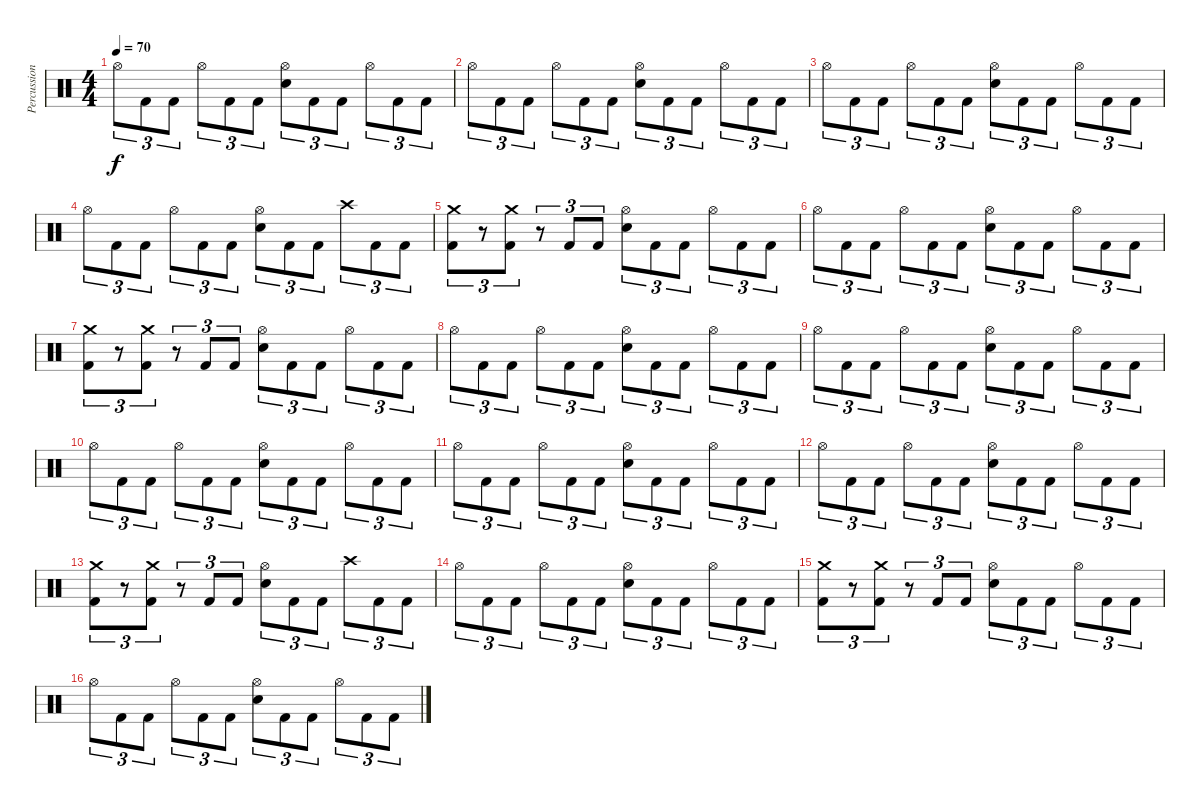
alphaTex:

\track ("Percussion" "Percussion") {instrument percussion}
\staff {score}
\articulation defaults
\ts (4 4)
\tempo 70
\clef neutral
\ks c "Hi-Hat (open)".8{tu (3 2) dy f} "Kick (hit) 2".8{tu (3 2)} "Kick (hit) 2".8{tu (3 2)} "Hi-Hat (open)".8{tu (3 2)} "Kick (hit) 2".8{tu (3 2)} "Kick (hit) 2".8{tu (3 2)}
("Hi-Hat (open)" "Electric Snare (hit)").8{tu (3 2)} "Kick (hit) 2".8{tu (3 2)} "Kick (hit) 2".8{tu (3 2)} "Hi-Hat (open)".8{tu (3 2)} "Kick (hit) 2".8{tu (3 2)} "Kick (hit) 2".8{tu (3 2)} |
"Hi-Hat (open)".8{tu (3 2)} "Kick (hit) 2".8{tu (3 2)} "Kick (hit) 2".8{tu (3 2)} "Hi-Hat (open)".8{tu (3 2)} "Kick (hit) 2".8{tu (3 2)} "Kick (hit) 2".8{tu (3 2)} ("Hi-Hat (open)" "Electric Snare (hit)").8{tu (3 2)} "Kick (hit) 2".8{tu (3 2)} "Kick (hit) 2".8{tu (3 2)} "Hi-Hat (open)".8{tu (3 2)} "Kick (hit) 2".8{tu (3 2)} "Kick (hit) 2".8{tu (3 2)} |
"Hi-Hat (open)".8{tu (3 2)} "Kick (hit) 2".8{tu (3 2)} "Kick (hit) 2".8{tu (3 2)} "Hi-Hat (open)".8{tu (3 2)} "Kick (hit) 2".8{tu (3 2)} "Kick (hit) 2".8{tu (3 2)} ("Hi-Hat (open)" "Electric Snare (hit)").8{tu (3 2)} "Kick (hit) 2".8{tu (3 2)} "Kick (hit) 2".8{tu (3 2)} "Hi-Hat (open)".8{tu (3 2)} "Kick (hit) 2".8{tu (3 2)} "Kick (hit) 2".8{tu (3 2)} |
"Hi-Hat (open)".8{tu (3 2)} "Kick (hit) 2".8{tu (3 2)} "Kick (hit) 2".8{tu (3 2)} "Hi-Hat (open)".8{tu (3 2)} "Kick (hit) 2".8{tu (3 2)} "Kick (hit) 2".8{tu (3 2)} ("Hi-Hat (open)" "Electric Snare (hit)").8{tu (3 2)} "Kick (hit) 2".8{tu (3 2)} "Kick (hit) 2".8{tu (3 2)} "Crash high (hit)".8{tu (3 2)} "Kick (hit) 2".8{tu (3 2)} "Kick (hit) 2".8{tu (3 2)} |
("Crash medium (hit)" "Kick (hit) 2").8{tu (3 2)} r.8{tu (3 2)} ("Crash medium (hit)" "Kick (hit) 2").8{tu (3 2)} r.8{tu (3 2)} "Kick (hit) 2".8{tu (3 2)} "Kick (hit) 2".8{tu (3 2)} ("Hi-Hat (open)" "Electric Snare (hit)").8{tu (3 2)} "Kick (hit) 2".8{tu (3 2)} "Kick (hit) 2".8{tu (3 2)} "Hi-Hat (open)".8{tu (3 2)} "Kick (hit) 2".8{tu (3 2)} "Kick (hit) 2".8{tu (3 2)} |
"Hi-Hat (open)".8{tu (3 2)} "Kick (hit) 2".8{tu (3 2)} "Kick (hit) 2".8{tu (3 2)} "Hi-Hat (open)".8{tu (3 2)} "Kick (hit) 2".8{tu (3 2)} "Kick (hit) 2".8{tu (3 2)} ("Hi-Hat (open)" "Electric Snare (hit)").8{tu (3 2)} "Kick (hit) 2".8{tu (3 2)} "Kick (hit) 2".8{tu (3 2)} "Hi-Hat (open)".8{tu (3 2)} "Kick (hit) 2".8{tu (3 2)} "Kick (hit) 2".8{tu (3 2)} |
("Crash medium (hit)" "Kick (hit) 2").8{tu (3 2)} r.8{tu (3 2)} ("Crash medium (hit)" "Kick (hit) 2").8{tu (3 2)} r.8{tu (3 2)} "Kick (hit) 2".8{tu (3 2)} "Kick (hit) 2".8{tu (3 2)} ("Hi-Hat (open)" "Electric Snare (hit)").8{tu (3 2)} "Kick (hit) 2".8{tu (3 2)} "Kick (hit) 2".8{tu (3 2)} "Hi-Hat (open)".8{tu (3 2)} "Kick (hit) 2".8{tu (3 2)} "Kick (hit) 2".8{tu (3 2)} |
"Hi-Hat (open)".8{tu (3 2)} "Kick (hit) 2".8{tu (3 2)} "Kick (hit) 2".8{tu (3 2)} "Hi-Hat (open)".8{tu (3 2)} "Kick (hit) 2".8{tu (3 2)} "Kick (hit) 2".8{tu (3 2)} ("Hi-Hat (open)" "Electric Snare (hit)").8{tu (3 2)} "Kick (hit) 2".8{tu (3 2)} "Kick (hit) 2".8{tu (3 2)} "Hi-Hat (open)".8{tu (3 2)} "Kick (hit) 2".8{tu (3 2)} "Kick (hit) 2".8{tu (3 2)} |
"Hi-Hat (open)".8{tu (3 2)} "Kick (hit) 2".8{tu (3 2)} "Kick (hit) 2".8{tu (3 2)} "Hi-Hat (open)".8{tu (3 2)} "Kick (hit) 2".8{tu (3 2)} "Kick (hit) 2".8{tu (3 2)} ("Hi-Hat (open)" "Electric Snare (hit)").8{tu (3 2)} "Kick (hit) 2".8{tu (3 2)} "Kick (hit) 2".8{tu (3 2)} "Hi-Hat (open)".8{tu (3 2)} "Kick (hit) 2".8{tu (3 2)} "Kick (hit) 2".8{tu (3 2)} |
"Hi-Hat (open)".8{tu (3 2)} "Kick (hit) 2".8{tu (3 2)} "Kick (hit) 2".8{tu (3 2)} "Hi-Hat (open)".8{tu (3 2)} "Kick (hit) 2".8{tu (3 2)} "Kick (hit) 2".8{tu (3 2)} ("Hi-Hat (open)" "Electric Snare (hit)").8{tu (3 2)} "Kick (hit) 2".8{tu (3 2)} "Kick (hit) 2".8{tu (3 2)} "Hi-Hat (open)".8{tu (3 2)} "Kick (hit) 2".8{tu (3 2)} "Kick (hit) 2".8{tu (3 2)} |
"Hi-Hat (open)".8{tu (3 2)} "Kick (hit) 2".8{tu (3 2)} "Kick (hit) 2".8{tu (3 2)} "Hi-Hat (open)".8{tu (3 2)} "Kick (hit) 2".8{tu (3 2)} "Kick (hit) 2".8{tu (3 2)} ("Hi-Hat (open)" "Electric Snare (hit)").8{tu (3 2)} "Kick (hit) 2".8{tu (3 2)} "Kick (hit) 2".8{tu (3 2)} "Hi-Hat (open)".8{tu (3 2)} "Kick (hit) 2".8{tu (3 2)} "Kick (hit) 2".8{tu (3 2)} |
"Hi-Hat (open)".8{tu (3 2)} "Kick (hit) 2".8{tu (3 2)} "Kick (hit) 2".8{tu (3 2)} "Hi-Hat (open)".8{tu (3 2)} "Kick (hit) 2".8{tu (3 2)} "Kick (hit) 2".8{tu (3 2)} ("Hi-Hat (open)" "Electric Snare (hit)").8{tu (3 2)} "Kick (hit) 2".8{tu (3 2)} "Kick (hit) 2".8{tu (3 2)} "Hi-Hat (open)".8{tu (3 2)} "Kick (hit) 2".8{tu (3 2)} "Kick (hit) 2".8{tu (3 2)} |
("Crash medium (hit)" "Kick (hit) 2").8{tu (3 2)} r.8{tu (3 2)} ("Crash medium (hit)" "Kick (hit) 2").8{tu (3 2)} r.8{tu (3 2)} "Kick (hit) 2".8{tu (3 2)} "Kick (hit) 2".8{tu (3 2)} ("Hi-Hat (open)" "Electric Snare (hit)").8{tu (3 2)} "Kick (hit) 2".8{tu (3 2)} "Kick (hit) 2".8{tu (3 2)} "Crash high (hit)".8{tu (3 2)} "Kick (hit) 2".8{tu (3 2)} "Kick (hit) 2".8{tu (3 2)} |
"Hi-Hat (open)".8{tu (3 2)} "Kick (hit) 2".8{tu (3 2)} "Kick (hit) 2".8{tu (3 2)} "Hi-Hat (open)".8{tu (3 2)} "Kick (hit) 2".8{tu (3 2)} "Kick (hit) 2".8{tu (3 2)} ("Hi-Hat (open)" "Electric Snare (hit)").8{tu (3 2)} "Kick (hit) 2".8{tu (3 2)} "Kick (hit) 2".8{tu (3 2)} "Hi-Hat (open)".8{tu (3 2)} "Kick (hit) 2".8{tu (3 2)} "Kick (hit) 2".8{tu (3 2)} |
("Crash medium (hit)" "Kick (hit) 2").8{tu (3 2)} r.8{tu (3 2)} ("Crash medium (hit)" "Kick (hit) 2").8{tu (3 2)} r.8{tu (3 2)} "Kick (hit) 2".8{tu (3 2)} "Kick (hit) 2".8{tu (3 2)} ("Hi-Hat (open)" "Electric Snare (hit)").8{tu (3 2)} "Kick (hit) 2".8{tu (3 2)} "Kick (hit) 2".8{tu (3 2)} "Hi-Hat (open)".8{tu (3 2)} "Kick (hit) 2".8{tu (3 2)} "Kick (hit) 2".8{tu (3 2)} |
"Hi-Hat (open)".8{tu (3 2)} "Kick (hit) 2".8{tu (3 2)} "Kick (hit) 2".8{tu (3 2)} "Hi-Hat (open)".8{tu (3 2)} "Kick (hit) 2".8{tu (3 2)} "Kick (hit) 2".8{tu (3 2)} ("Hi-Hat (open)" "Electric Snare (hit)").8{tu (3 2)} "Kick (hit) 2".8{tu (3 2)} "Kick (hit) 2".8{tu (3 2)} "Hi-Hat (open)".8{tu (3 2)} "Kick (hit) 2".8{tu (3 2)} "Kick (hit) 2".8{tu (3 2)}
